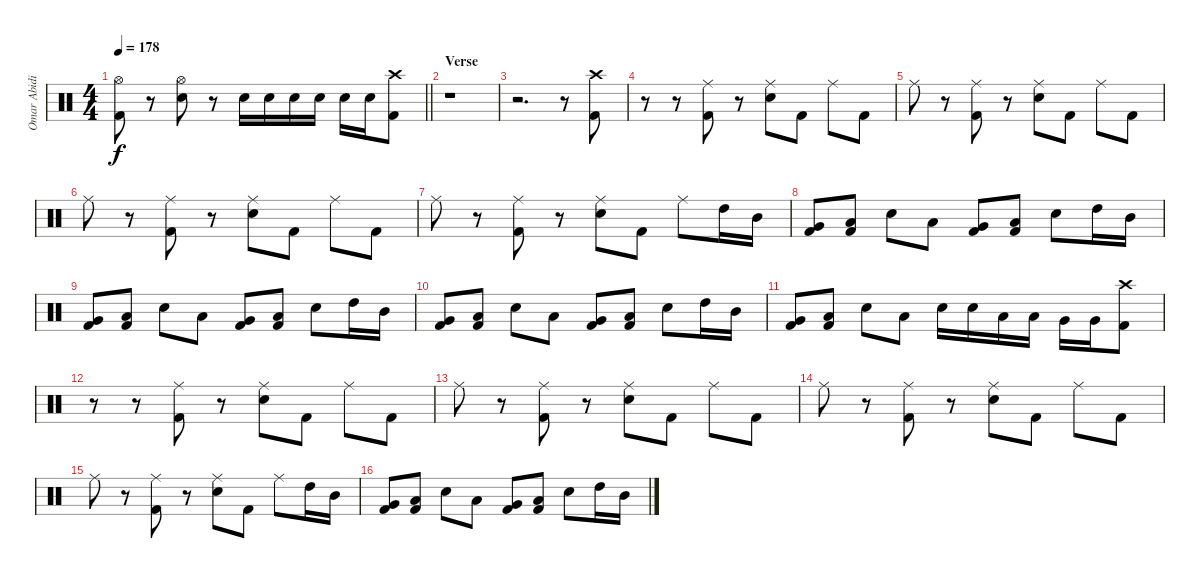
\track ("Omar Abidi" "Omar Abidi") {instrument percussion}
\staff {score}
\articulation defaults
\ts (4 4)
\tempo 178
\clef neutral
\barLineRight lightlight
\ks c
("Hi-Hat (open)" "Kick (hit) 2").8{dy f} r.8 ("Hi-Hat (open)" "Electric Snare (hit)").8 r.8 "Electric Snare (hit)".16 "Electric Snare (hit)".16 "Electric Snare (hit)".16 "Electric Snare (hit)".16 "Electric Snare (hit)".16 "Electric Snare (hit)".16 ("Crash high (hit)" "Kick (hit) 2").8 |
\section ("" "Verse")
r.1 |
r.2{d} r.8 ("Crash high (hit)" "Kick (hit) 2").8 |
r.8 r.8 ("Ride (middle)" "Kick (hit) 2").8 r.8 ("Ride (middle)" "Electric Snare (hit)").8 "Kick (hit) 2".8 "Ride (middle)".8 "Kick (hit) 2".8 |
"Ride (middle)".8 r.8 ("Ride (middle)" "Kick (hit) 2").8 r.8 ("Ride (middle)" "Electric Snare (hit)").8 "Kick (hit) 2".8 "Ride (middle)".8 "Kick (hit) 2".8 |
"Ride (middle)".8 r.8 ("Ride (middle)" "Kick (hit) 2").8 r.8 ("Ride (middle)" "Electric Snare (hit)").8 "Kick (hit) 2".8 "Ride (middle)".8 "Kick (hit) 2".8 |
"Ride (middle)".8 r.8 ("Ride (middle)" "Kick (hit) 2").8 r.8 ("Ride (middle)" "Electric Snare (hit)").8 "Kick (hit) 2".8 "Ride (middle)".8 "High Tom (hit)".16 "Mid Tom (hit)".16 |
("Very Low Tom (hit)" "Kick (hit) 2").8 ("Low Floor Tom (hit)" "Kick (hit) 2").8 "Electric Snare (hit)".8 "Low Floor Tom (hit)".8 ("Very Low Tom (hit)" "Kick (hit) 2").8 ("Low Floor Tom (hit)" "Kick (hit) 2").8 "Electric Snare (hit)".8 "High Tom (hit)".16 "Mid Tom (hit)".16 |
("Very Low Tom (hit)" "Kick (hit) 2").8 ("Low Floor Tom (hit)" "Kick (hit) 2").8 "Electric Snare (hit)".8 "Low Floor Tom (hit)".8 ("Very Low Tom (hit)" "Kick (hit) 2").8 ("Low Floor Tom (hit)" "Kick (hit) 2").8 "Electric Snare (hit)".8 "High Tom (hit)".16 "Mid Tom (hit)".16 |
("Very Low Tom (hit)" "Kick (hit) 2").8 ("Low Floor Tom (hit)" "Kick (hit) 2").8 "Electric Snare (hit)".8 "Low Floor Tom (hit)".8 ("Very Low Tom (hit)" "Kick (hit) 2").8 ("Low Floor Tom (hit)" "Kick (hit) 2").8 "Electric Snare (hit)".8 "High Tom (hit)".16 "Mid Tom (hit)".16 |
("Very Low Tom (hit)" "Kick (hit) 2").8 ("Low Floor Tom (hit)" "Kick (hit) 2").8 "Electric Snare (hit)".8 "Low Floor Tom (hit)".8 "Electric Snare (hit)".16 "Electric Snare (hit)".16 "Low Tom (hit)".16 "Low Tom (hit)".16 "Very Low Tom (hit)".16 "Very Low Tom (hit)".16 ("Crash high (hit)" "Kick (hit) 2").8 |
r.8 r.8 ("Ride (middle)" "Kick (hit) 2").8 r.8 ("Ride (middle)" "Electric Snare (hit)").8 "Kick (hit) 2".8 "Ride (middle)".8 "Kick (hit) 2".8 |
"Ride (middle)".8 r.8 ("Ride (middle)" "Kick (hit) 2").8 r.8 ("Ride (middle)" "Electric Snare (hit)").8 "Kick (hit) 2".8 "Ride (middle)".8 "Kick (hit) 2".8 |
"Ride (middle)".8 r.8 ("Ride (middle)" "Kick (hit) 2").8 r.8 ("Ride (middle)" "Electric Snare (hit)").8 "Kick (hit) 2".8 "Ride (middle)".8 "Kick (hit) 2".8 |
"Ride (middle)".8 r.8 ("Ride (middle)" "Kick (hit) 2").8 r.8 ("Ride (middle)" "Electric Snare (hit)").8 "Kick (hit) 2".8 "Ride (middle)".8 "High Tom (hit)".16 "Mid Tom (hit)".16 |
("Very Low Tom (hit)" "Kick (hit) 2").8 ("Low Floor Tom (hit)" "Kick (hit) 2").8 "Electric Snare (hit)".8 "Low Floor Tom (hit)".8 ("Very Low Tom (hit)" "Kick (hit) 2").8 ("Low Floor Tom (hit)" "Kick (hit) 2").8 "Electric Snare (hit)".8 "High Tom (hit)".16 "Mid Tom (hit)".16
